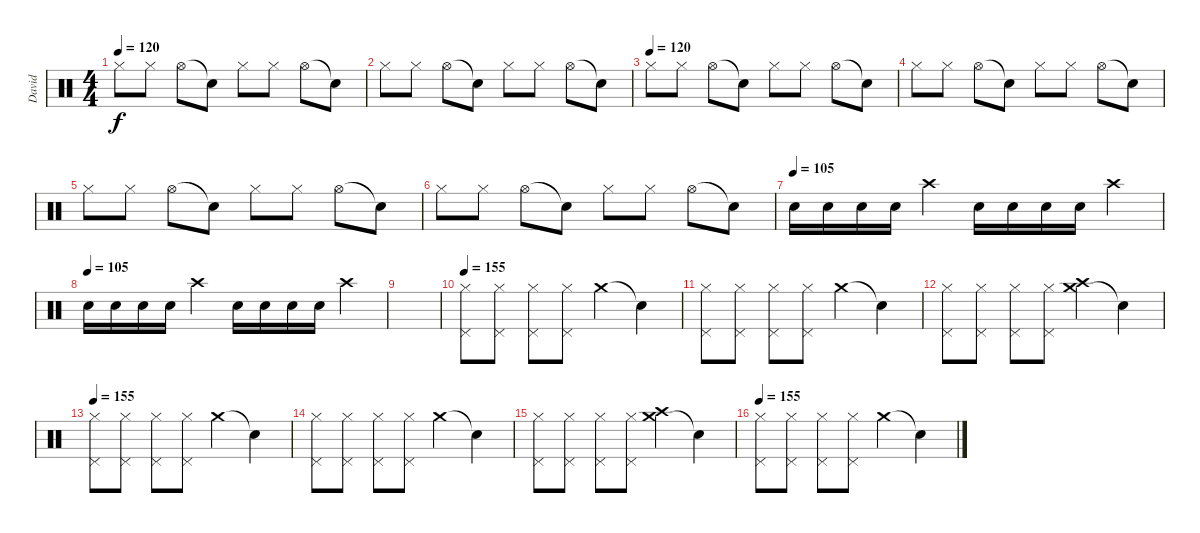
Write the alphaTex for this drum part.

\track ("David" "David") {instrument percussion}
\staff {score}
\articulation defaults
\ts (4 4)
\tempo 120
\clef neutral
\ks c "Hi-Hat (closed)".8{dy f} "Hi-Hat (closed)".8 "Hi-Hat (open)".8 "Snare (hit)"{t}.8 "Hi-Hat (closed)".8 "Hi-Hat (closed)".8 "Hi-Hat (open)".8 "Snare (hit)"{t}.8
|
"Hi-Hat (closed)".8 "Hi-Hat (closed)".8 "Hi-Hat (open)".8 "Snare (hit)"{t}.8 "Hi-Hat (closed)".8 "Hi-Hat (closed)".8 "Hi-Hat (open)".8 "Snare (hit)"{t}.8 |
\tempo (120)
"Hi-Hat (closed)".8 "Hi-Hat (closed)".8 "Hi-Hat (open)".8 "Snare (hit)"{t}.8 "Hi-Hat (closed)".8 "Hi-Hat (closed)".8 "Hi-Hat (open)".8 "Snare (hit)"{t}.8 |
"Hi-Hat (closed)".8 "Hi-Hat (closed)".8 "Hi-Hat (open)".8 "Snare (hit)"{t}.8 "Hi-Hat (closed)".8 "Hi-Hat (closed)".8 "Hi-Hat (open)".8 "Snare (hit)"{t}.8 |
"Hi-Hat (closed)".8 "Hi-Hat (closed)".8 "Hi-Hat (open)".8 "Snare (hit)"{t}.8 "Hi-Hat (closed)".8 "Hi-Hat (closed)".8 "Hi-Hat (open)".8 "Snare (hit)"{t}.8 |
"Hi-Hat (closed)".8 "Hi-Hat (closed)".8 "Hi-Hat (open)".8 "Snare (hit)"{t}.8 "Hi-Hat (closed)".8 "Hi-Hat (closed)".8 "Hi-Hat (open)".8 "Snare (hit)"{t}.8 |
\tempo (105)
"Electric Snare (hit)".16 "Electric Snare (hit)".16 "Electric Snare (hit)".16 "Electric Snare (hit)".16 "Crash high (hit)".4 "Electric Snare (hit)".16 "Electric Snare (hit)".16 "Electric Snare (hit)".16 "Electric Snare (hit)".16 "Crash high (hit)".4 |
\tempo (105)
"Electric Snare (hit)".16 "Electric Snare (hit)".16 "Electric Snare (hit)".16 "Electric Snare (hit)".16 "Crash high (hit)".4 "Electric Snare (hit)".16 "Electric Snare (hit)".16 "Electric Snare (hit)".16 "Electric Snare (hit)".16 "Crash high (hit)".4 |
|
\tempo 155
("Hi-Hat (closed)" "Pedal Hi-Hat (hit)").8 ("Hi-Hat (closed)" "Pedal Hi-Hat (hit)").8 ("Hi-Hat (closed)" "Pedal Hi-Hat (hit)").8 ("Hi-Hat (closed)" "Pedal Hi-Hat (hit)").8 "Crash medium (hit)".4 "Snare (hit)"{t}.4 |
("Hi-Hat (closed)" "Pedal Hi-Hat (hit)").8 ("Hi-Hat (closed)" "Pedal Hi-Hat (hit)").8 ("Hi-Hat (closed)" "Pedal Hi-Hat (hit)").8 ("Hi-Hat (closed)" "Pedal Hi-Hat (hit)").8 "Crash medium (hit)".4 "Snare (hit)"{t}.4 |
("Hi-Hat (closed)" "Pedal Hi-Hat (hit)").8 ("Hi-Hat (closed)" "Pedal Hi-Hat (hit)").8 ("Hi-Hat (closed)" "Pedal Hi-Hat (hit)").8 ("Hi-Hat (closed)" "Pedal Hi-Hat (hit)").8 ("Crash medium (hit)" "Crash high (hit)").4 "Snare (hit)"{t}.4 |
\tempo 155
("Hi-Hat (closed)" "Pedal Hi-Hat (hit)").8 ("Hi-Hat (closed)" "Pedal Hi-Hat (hit)").8 ("Hi-Hat (closed)" "Pedal Hi-Hat (hit)").8 ("Hi-Hat (closed)" "Pedal Hi-Hat (hit)").8 "Crash medium (hit)".4 "Snare (hit)"{t}.4 |
("Hi-Hat (closed)" "Pedal Hi-Hat (hit)").8 ("Hi-Hat (closed)" "Pedal Hi-Hat (hit)").8 ("Hi-Hat (closed)" "Pedal Hi-Hat (hit)").8 ("Hi-Hat (closed)" "Pedal Hi-Hat (hit)").8 "Crash medium (hit)".4 "Snare (hit)"{t}.4 |
("Hi-Hat (closed)" "Pedal Hi-Hat (hit)").8 ("Hi-Hat (closed)" "Pedal Hi-Hat (hit)").8 ("Hi-Hat (closed)" "Pedal Hi-Hat (hit)").8 ("Hi-Hat (closed)" "Pedal Hi-Hat (hit)").8 ("Crash medium (hit)" "Crash high (hit)").4 "Snare (hit)"{t}.4 |
\tempo 155
("Hi-Hat (closed)" "Pedal Hi-Hat (hit)").8 ("Hi-Hat (closed)" "Pedal Hi-Hat (hit)").8 ("Hi-Hat (closed)" "Pedal Hi-Hat (hit)").8 ("Hi-Hat (closed)" "Pedal Hi-Hat (hit)").8 "Crash medium (hit)".4 "Snare (hit)"{t}.4
